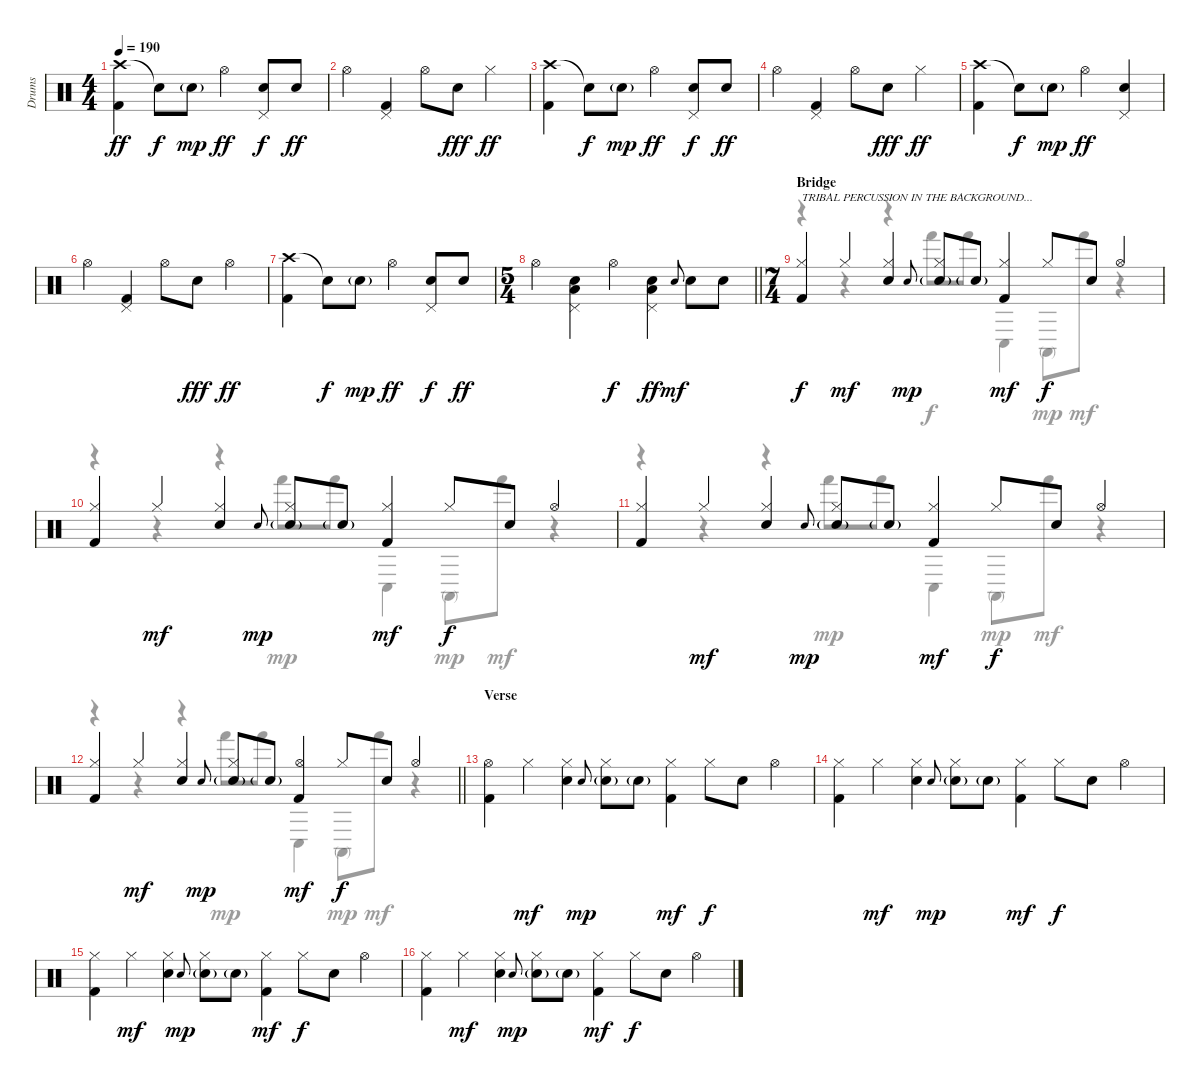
\track ("Drums" "Drums") {instrument percussion}
\staff {score}
\articulation defaults
\voice
\ts (4 4)
\tempo 190
\clef neutral
\ks c
("Crash high (hit)" "Kick (hit) 2").4{dy ff} "Snare (hit)"{t}.8{dy f} "Electric Snare (hit)"{g}.8{dy mp} "Hi-Hat (open)".4{dy ff} ("Pedal Hi-Hat (hit)" "Electric Snare (hit)").8{dy f} "Electric Snare (hit)".8{dy ff} |
"Hi-Hat (open)".4 ("Pedal Hi-Hat (hit)" "Kick (hit) 2").4 "Hi-Hat (open)".8 "Electric Snare (hit)".8{dy fff} "Hi-Hat (closed)".4{dy ff} |
("Crash high (hit)" "Kick (hit) 2").4 "Snare (hit)"{t}.8{dy f} "Electric Snare (hit)"{g}.8{dy mp} "Hi-Hat (open)".4{dy ff} ("Pedal Hi-Hat (hit)" "Electric Snare (hit)").8{dy f} "Electric Snare (hit)".8{dy ff} |
"Hi-Hat (open)".4 ("Pedal Hi-Hat (hit)" "Kick (hit) 2").4 "Hi-Hat (open)".8 "Electric Snare (hit)".8{dy fff} "Hi-Hat (closed)".4{dy ff} |
("Crash high (hit)" "Kick (hit) 2").4 "Snare (hit)"{t}.8{dy f} "Electric Snare (hit)"{g}.8{dy mp} "Hi-Hat (open)".4{dy ff} ("Pedal Hi-Hat (hit)" "Electric Snare (hit)").4 |
"Hi-Hat (open)".4 ("Pedal Hi-Hat (hit)" "Kick (hit) 2").4 "Hi-Hat (open)".8 "Electric Snare (hit)".8{dy fff} "Hi-Hat (open)".4{dy ff} |
("Crash high (hit)" "Kick (hit) 2").4 "Snare (hit)"{t}.8{dy f} "Electric Snare (hit)"{g}.8{dy mp} "Hi-Hat (open)".4{dy ff} ("Pedal Hi-Hat (hit)" "Electric Snare (hit)").8{dy f} "Electric Snare (hit)".8{dy ff} |
\ts (5 4)
\barLineRight lightlight "Hi-Hat (open)".4
("Pedal Hi-Hat (hit)" "Electric Snare (hit)" "Low Tom (hit)").4 "Hi-Hat (open)".4{dy f} ("Pedal Hi-Hat (hit)" "Electric Snare (hit)" "Low Tom (hit)").4{dy ff} "Electric Snare (hit)".8{gr onbeat dy mf} "Electric Snare (hit)".8 "Electric Snare (hit)".8 |
\ts (7 4)
\section ("" "Bridge")
("Hi-Hat (closed)" "Kick (hit) 2").4{txt "TRIBAL PERCUSSION IN THE BACKGROUND..." dy f} "Hi-Hat (closed)".4{dy mf} ("Hi-Hat (closed)" "Electric Snare (hit)").4 "Electric Snare (hit)".8{gr onbeat dy mp} ("Hi-Hat (closed)" "Electric Snare (hit)"{g}).8 "Electric Snare (hit)"{g}.8 ("Hi-Hat (closed)" "Kick (hit) 2").4{dy mf} "Hi-Hat (closed)".8{dy f} "Electric Snare (hit)".8 "Hi-Hat (open)".4 |
("Hi-Hat (closed)" "Kick (hit) 2").4 "Hi-Hat (closed)".4{dy mf} ("Hi-Hat (closed)" "Electric Snare (hit)").4 "Electric Snare (hit)".8{gr onbeat dy mp} ("Hi-Hat (closed)" "Electric Snare (hit)"{g}).8 "Electric Snare (hit)"{g}.8 ("Hi-Hat (closed)" "Kick (hit) 2").4{dy mf} "Hi-Hat (closed)".8{dy f} "Electric Snare (hit)".8 "Hi-Hat (open)".4 |
("Hi-Hat (closed)" "Kick (hit) 2").4 "Hi-Hat (closed)".4{dy mf} ("Hi-Hat (closed)" "Electric Snare (hit)").4 "Electric Snare (hit)".8{gr onbeat dy mp} ("Hi-Hat (closed)" "Electric Snare (hit)"{g}).8 "Electric Snare (hit)"{g}.8 ("Hi-Hat (closed)" "Kick (hit) 2").4{dy mf} "Hi-Hat (closed)".8{dy f} "Electric Snare (hit)".8 "Hi-Hat (open)".4 |
\barLineRight lightlight
("Hi-Hat (closed)" "Kick (hit) 2").4 "Hi-Hat (closed)".4{dy mf} ("Hi-Hat (closed)" "Electric Snare (hit)").4 "Electric Snare (hit)".8{gr onbeat dy mp} ("Hi-Hat (closed)" "Electric Snare (hit)"{g}).8 "Electric Snare (hit)"{g}.8 ("Hi-Hat (open)" "Kick (hit) 2").4{dy mf} "Hi-Hat (closed)".8{dy f} "Electric Snare (hit)".8 "Hi-Hat (open)".4 |
\section ("" "Verse")
("Hi-Hat (open)" "Kick (hit) 2").4 "Hi-Hat (closed)".4{dy mf} ("Hi-Hat (closed)" "Electric Snare (hit)").4 "Electric Snare (hit)".8{gr onbeat dy mp} ("Hi-Hat (closed)" "Electric Snare (hit)"{g}).8 "Electric Snare (hit)"{g}.8 ("Hi-Hat (closed)" "Kick (hit) 2").4{dy mf} "Hi-Hat (closed)".8{dy f} "Electric Snare (hit)".8 "Hi-Hat (open)".4 |
("Hi-Hat (closed)" "Kick (hit) 2").4 "Hi-Hat (closed)".4{dy mf} ("Hi-Hat (closed)" "Electric Snare (hit)").4 "Electric Snare (hit)".8{gr onbeat dy mp} ("Hi-Hat (closed)" "Electric Snare (hit)"{g}).8 "Electric Snare (hit)"{g}.8 ("Hi-Hat (closed)" "Kick (hit) 2").4{dy mf} "Hi-Hat (closed)".8{dy f} "Electric Snare (hit)".8 "Hi-Hat (open)".4 |
("Hi-Hat (closed)" "Kick (hit) 2").4 "Hi-Hat (closed)".4{dy mf} ("Hi-Hat (closed)" "Electric Snare (hit)").4 "Electric Snare (hit)".8{gr onbeat dy mp} ("Hi-Hat (closed)" "Electric Snare (hit)"{g}).8 "Electric Snare (hit)"{g}.8 ("Hi-Hat (closed)" "Kick (hit) 2").4{dy mf} "Hi-Hat (closed)".8{dy f} "Electric Snare (hit)".8 "Hi-Hat (open)".4 |
("Hi-Hat (closed)" "Kick (hit) 2").4 "Hi-Hat (closed)".4{dy mf} ("Hi-Hat (closed)" "Electric Snare (hit)").4 "Electric Snare (hit)".8{gr onbeat dy mp} ("Hi-Hat (closed)" "Electric Snare (hit)"{g}).8 "Electric Snare (hit)"{g}.8 ("Hi-Hat (closed)" "Kick (hit) 2").4{dy mf} "Hi-Hat (closed)".8{dy f} "Electric Snare (hit)".8 "Hi-Hat (open)".4
\voice
\clef neutral
\ottava regular
\simile none
\ks c
|
|
|
|
|
|
|
\barLineRight lightlight
|
r.4 r.4 r.4 "Hand (hit)".8 "Hand (hit)".8 "Conga low (hit)".4{dy mf} "Conga high (mute)".8{dy mp} "Hand (hit)".8{dy mf} r.4 |
r.4 r.4 r.4 "Hand (hit)".8{dy mp} "Hand (hit)".8 "Conga low (hit)".4{dy mf} "Conga high (mute)".8{dy mp} "Hand (hit)".8{dy mf} r.4 |
r.4 r.4 r.4 "Hand (hit)".8{dy mp} "Hand (hit)".8 "Conga low (hit)".4{dy mf} "Conga high (mute)".8{dy mp} "Hand (hit)".8{dy mf} r.4 |
\barLineRight lightlight
r.4 r.4 r.4 "Hand (hit)".8{dy mp} "Hand (hit)".8 "Conga low (hit)".4{dy mf} "Conga high (mute)".8{dy mp} "Hand (hit)".8{dy mf} r.4 |
|
|
|
